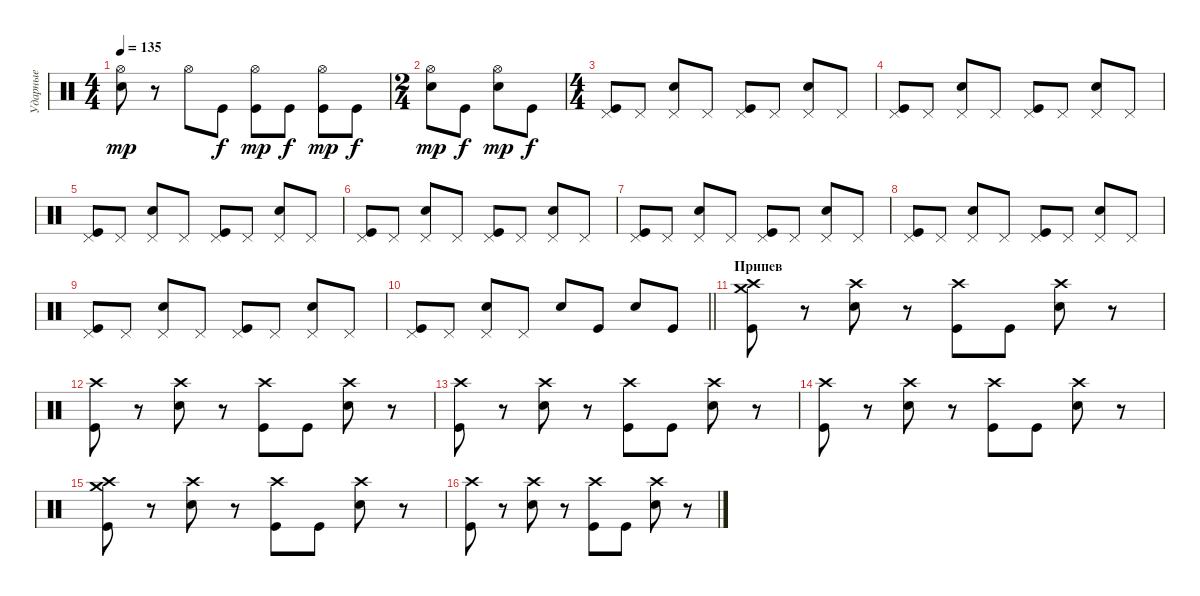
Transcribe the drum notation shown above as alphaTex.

\track ("Ударные" "Ударные") {instrument percussion bank 9}
\staff {score}
\articulation defaults
\ts (4 4)
\tempo 135
\clef neutral
\ks c
("Electric Snare (hit)" "Hi-Hat (open)").8{dy mp} r.8 "Hi-Hat (open)".8 "Kick (hit)".8{dy f} ("Kick (hit)" "Hi-Hat (open)").8{dy mp} "Kick (hit)".8{dy f} ("Kick (hit)" "Hi-Hat (open)").8{dy mp} "Kick (hit)".8{dy f} |
\ts (2 4)
("Electric Snare (hit)" "Hi-Hat (open)").8{dy mp} "Kick (hit)".8{dy f} ("Electric Snare (hit)" "Hi-Hat (open)").8{dy mp} "Kick (hit)".8{dy f} |
\ts (4 4)
("Kick (hit)" "Pedal Hi-Hat (hit)").8 "Pedal Hi-Hat (hit)".8 ("Electric Snare (hit)" "Pedal Hi-Hat (hit)").8 "Pedal Hi-Hat (hit)".8 ("Kick (hit)" "Pedal Hi-Hat (hit)").8 "Pedal Hi-Hat (hit)".8 ("Electric Snare (hit)" "Pedal Hi-Hat (hit)").8 "Pedal Hi-Hat (hit)".8 |
("Kick (hit)" "Pedal Hi-Hat (hit)").8 "Pedal Hi-Hat (hit)".8 ("Electric Snare (hit)" "Pedal Hi-Hat (hit)").8 "Pedal Hi-Hat (hit)".8 ("Kick (hit)" "Pedal Hi-Hat (hit)").8 "Pedal Hi-Hat (hit)".8 ("Electric Snare (hit)" "Pedal Hi-Hat (hit)").8 "Pedal Hi-Hat (hit)".8 |
("Kick (hit)" "Pedal Hi-Hat (hit)").8 "Pedal Hi-Hat (hit)".8 ("Electric Snare (hit)" "Pedal Hi-Hat (hit)").8 "Pedal Hi-Hat (hit)".8 ("Kick (hit)" "Pedal Hi-Hat (hit)").8 "Pedal Hi-Hat (hit)".8 ("Electric Snare (hit)" "Pedal Hi-Hat (hit)").8 "Pedal Hi-Hat (hit)".8 |
("Kick (hit)" "Pedal Hi-Hat (hit)").8 "Pedal Hi-Hat (hit)".8 ("Electric Snare (hit)" "Pedal Hi-Hat (hit)").8 "Pedal Hi-Hat (hit)".8 ("Kick (hit)" "Pedal Hi-Hat (hit)").8 "Pedal Hi-Hat (hit)".8 ("Electric Snare (hit)" "Pedal Hi-Hat (hit)").8 "Pedal Hi-Hat (hit)".8 |
("Kick (hit)" "Pedal Hi-Hat (hit)").8 "Pedal Hi-Hat (hit)".8 ("Electric Snare (hit)" "Pedal Hi-Hat (hit)").8 "Pedal Hi-Hat (hit)".8 ("Kick (hit)" "Pedal Hi-Hat (hit)").8 "Pedal Hi-Hat (hit)".8 ("Electric Snare (hit)" "Pedal Hi-Hat (hit)").8 "Pedal Hi-Hat (hit)".8 |
("Kick (hit)" "Pedal Hi-Hat (hit)").8 "Pedal Hi-Hat (hit)".8 ("Electric Snare (hit)" "Pedal Hi-Hat (hit)").8 "Pedal Hi-Hat (hit)".8 ("Kick (hit)" "Pedal Hi-Hat (hit)").8 "Pedal Hi-Hat (hit)".8 ("Electric Snare (hit)" "Pedal Hi-Hat (hit)").8 "Pedal Hi-Hat (hit)".8 |
("Kick (hit)" "Pedal Hi-Hat (hit)").8 "Pedal Hi-Hat (hit)".8 ("Electric Snare (hit)" "Pedal Hi-Hat (hit)").8 "Pedal Hi-Hat (hit)".8 ("Kick (hit)" "Pedal Hi-Hat (hit)").8 "Pedal Hi-Hat (hit)".8 ("Electric Snare (hit)" "Pedal Hi-Hat (hit)").8 "Pedal Hi-Hat (hit)".8 |
\barLineRight lightlight
("Kick (hit)" "Pedal Hi-Hat (hit)").8 "Pedal Hi-Hat (hit)".8 ("Electric Snare (hit)" "Pedal Hi-Hat (hit)").8 "Pedal Hi-Hat (hit)".8 "Electric Snare (hit)".8 "Kick (hit)".8 "Electric Snare (hit)".8 "Kick (hit)".8 |
\section ("" "Припев")
("Crash high (hit)" "Kick (hit)" "Crash medium (hit)").8 r.8 ("Crash high (hit)" "Electric Snare (hit)").8 r.8 ("Crash high (hit)" "Kick (hit)").8 "Kick (hit)".8 ("Crash high (hit)" "Electric Snare (hit)").8 r.8 |
("Crash high (hit)" "Kick (hit)").8 r.8 ("Crash high (hit)" "Electric Snare (hit)").8 r.8 ("Crash high (hit)" "Kick (hit)").8 "Kick (hit)".8 ("Crash high (hit)" "Electric Snare (hit)").8 r.8 |
("Crash high (hit)" "Kick (hit)").8 r.8 ("Crash high (hit)" "Electric Snare (hit)").8 r.8 ("Crash high (hit)" "Kick (hit)").8 "Kick (hit)".8 ("Crash high (hit)" "Electric Snare (hit)").8 r.8 |
("Crash high (hit)" "Kick (hit)").8 r.8 ("Crash high (hit)" "Electric Snare (hit)").8 r.8 ("Crash high (hit)" "Kick (hit)").8 "Kick (hit)".8 ("Crash high (hit)" "Electric Snare (hit)").8 r.8 |
("Crash high (hit)" "Kick (hit)" "Crash medium (hit)").8 r.8 ("Crash high (hit)" "Electric Snare (hit)").8 r.8 ("Crash high (hit)" "Kick (hit)").8 "Kick (hit)".8 ("Crash high (hit)" "Electric Snare (hit)").8 r.8 |
("Crash high (hit)" "Kick (hit)").8 r.8 ("Crash high (hit)" "Electric Snare (hit)").8 r.8 ("Crash high (hit)" "Kick (hit)").8 "Kick (hit)".8 ("Crash high (hit)" "Electric Snare (hit)").8 r.8
